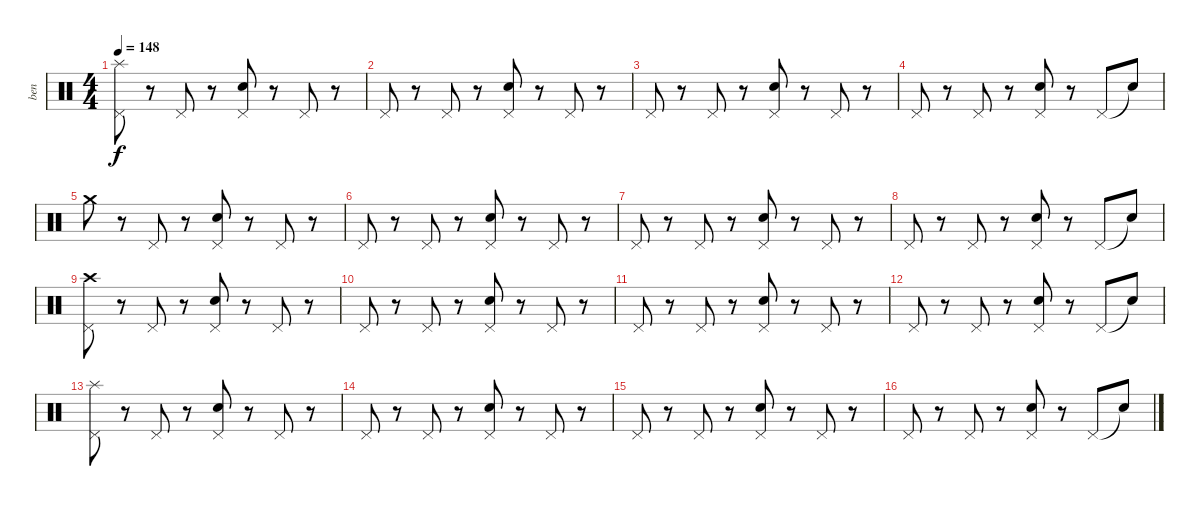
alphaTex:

\track ("ben" "ben") {instrument percussion}
\staff {score}
\articulation defaults
\ts (4 4)
\tempo 148
\clef neutral
\ks c
("Splash (hit)" "Pedal Hi-Hat (hit)").8{dy f} r.8 "Pedal Hi-Hat (hit)".8 r.8 ("Electric Snare (hit)" "Pedal Hi-Hat (hit)").8 r.8 "Pedal Hi-Hat (hit)".8 r.8 |
"Pedal Hi-Hat (hit)".8 r.8 "Pedal Hi-Hat (hit)".8 r.8 ("Electric Snare (hit)" "Pedal Hi-Hat (hit)").8 r.8 "Pedal Hi-Hat (hit)".8 r.8 |
"Pedal Hi-Hat (hit)".8 r.8 "Pedal Hi-Hat (hit)".8 r.8 ("Electric Snare (hit)" "Pedal Hi-Hat (hit)").8 r.8 "Pedal Hi-Hat (hit)".8 r.8 |
"Pedal Hi-Hat (hit)".8 r.8 "Pedal Hi-Hat (hit)".8 r.8 ("Electric Snare (hit)" "Pedal Hi-Hat (hit)").8 r.8 "Pedal Hi-Hat (hit)".8 "Snare (hit)"{t}.8 |
"Crash medium (hit)".8 r.8 "Pedal Hi-Hat (hit)".8 r.8 ("Electric Snare (hit)" "Pedal Hi-Hat (hit)").8 r.8 "Pedal Hi-Hat (hit)".8 r.8 |
"Pedal Hi-Hat (hit)".8 r.8 "Pedal Hi-Hat (hit)".8 r.8 ("Electric Snare (hit)" "Pedal Hi-Hat (hit)").8 r.8 "Pedal Hi-Hat (hit)".8 r.8 |
"Pedal Hi-Hat (hit)".8 r.8 "Pedal Hi-Hat (hit)".8 r.8 ("Electric Snare (hit)" "Pedal Hi-Hat (hit)").8 r.8 "Pedal Hi-Hat (hit)".8 r.8 |
"Pedal Hi-Hat (hit)".8 r.8 "Pedal Hi-Hat (hit)".8 r.8 ("Electric Snare (hit)" "Pedal Hi-Hat (hit)").8 r.8 "Pedal Hi-Hat (hit)".8 "Snare (hit)"{t}.8 |
("Crash high (hit)" "Pedal Hi-Hat (hit)").8 r.8 "Pedal Hi-Hat (hit)".8 r.8 ("Electric Snare (hit)" "Pedal Hi-Hat (hit)").8 r.8 "Pedal Hi-Hat (hit)".8 r.8 |
"Pedal Hi-Hat (hit)".8 r.8 "Pedal Hi-Hat (hit)".8 r.8 ("Electric Snare (hit)" "Pedal Hi-Hat (hit)").8 r.8 "Pedal Hi-Hat (hit)".8 r.8 |
"Pedal Hi-Hat (hit)".8 r.8 "Pedal Hi-Hat (hit)".8 r.8 ("Electric Snare (hit)" "Pedal Hi-Hat (hit)").8 r.8 "Pedal Hi-Hat (hit)".8 r.8 |
"Pedal Hi-Hat (hit)".8 r.8 "Pedal Hi-Hat (hit)".8 r.8 ("Electric Snare (hit)" "Pedal Hi-Hat (hit)").8 r.8 "Pedal Hi-Hat (hit)".8 "Snare (hit)"{t}.8 |
("Splash (hit)" "Pedal Hi-Hat (hit)").8 r.8 "Pedal Hi-Hat (hit)".8 r.8 ("Electric Snare (hit)" "Pedal Hi-Hat (hit)").8 r.8 "Pedal Hi-Hat (hit)".8 r.8 |
"Pedal Hi-Hat (hit)".8 r.8 "Pedal Hi-Hat (hit)".8 r.8 ("Electric Snare (hit)" "Pedal Hi-Hat (hit)").8 r.8 "Pedal Hi-Hat (hit)".8 r.8 |
"Pedal Hi-Hat (hit)".8 r.8 "Pedal Hi-Hat (hit)".8 r.8 ("Electric Snare (hit)" "Pedal Hi-Hat (hit)").8 r.8 "Pedal Hi-Hat (hit)".8 r.8 |
"Pedal Hi-Hat (hit)".8 r.8 "Pedal Hi-Hat (hit)".8 r.8 ("Electric Snare (hit)" "Pedal Hi-Hat (hit)").8 r.8 "Pedal Hi-Hat (hit)".8 "Snare (hit)"{t}.8
